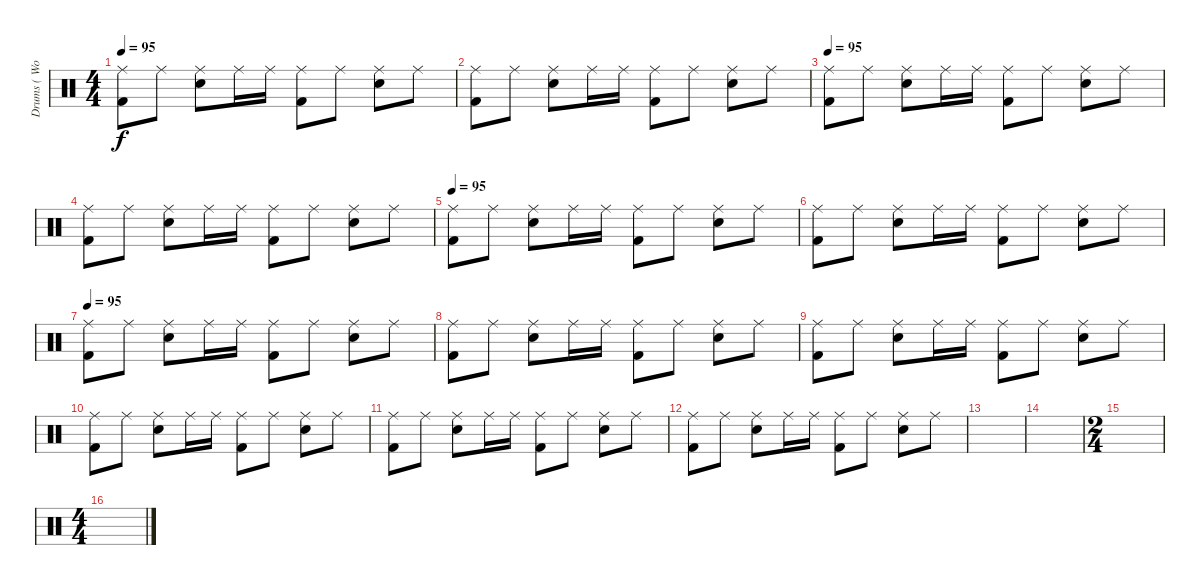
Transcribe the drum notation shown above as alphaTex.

\track ("Drums ( Wolf Simons)" "Drums ( Wo") {instrument percussion}
\staff {score}
\articulation defaults
\ts (4 4)
\tempo 95
\clef neutral
\ks c
("Ride (middle)" "Kick (hit) 2").8{dy f} "Ride (middle)".8 ("Ride (middle)" "Electric Snare (hit)").8 "Ride (middle)".16 "Ride (middle)".16 ("Ride (middle)" "Kick (hit) 2").8 "Ride (middle)".8 ("Ride (middle)" "Electric Snare (hit)").8 "Ride (middle)".8 |
("Ride (middle)" "Kick (hit) 2").8 "Ride (middle)".8 ("Ride (middle)" "Electric Snare (hit)").8 "Ride (middle)".16 "Ride (middle)".16 ("Ride (middle)" "Kick (hit) 2").8 "Ride (middle)".8 ("Ride (middle)" "Electric Snare (hit)").8 "Ride (middle)".8 |
\tempo 95
("Ride (middle)" "Kick (hit) 2").8 "Ride (middle)".8 ("Ride (middle)" "Electric Snare (hit)").8 "Ride (middle)".16 "Ride (middle)".16 ("Ride (middle)" "Kick (hit) 2").8 "Ride (middle)".8 ("Ride (middle)" "Electric Snare (hit)").8 "Ride (middle)".8 |
("Ride (middle)" "Kick (hit) 2").8 "Ride (middle)".8 ("Ride (middle)" "Electric Snare (hit)").8 "Ride (middle)".16 "Ride (middle)".16 ("Ride (middle)" "Kick (hit) 2").8 "Ride (middle)".8 ("Ride (middle)" "Electric Snare (hit)").8 "Ride (middle)".8 |
\tempo 95
("Ride (middle)" "Kick (hit) 2").8 "Ride (middle)".8 ("Ride (middle)" "Electric Snare (hit)").8 "Ride (middle)".16 "Ride (middle)".16 ("Ride (middle)" "Kick (hit) 2").8 "Ride (middle)".8 ("Ride (middle)" "Electric Snare (hit)").8 "Ride (middle)".8 |
("Ride (middle)" "Kick (hit) 2").8 "Ride (middle)".8 ("Ride (middle)" "Electric Snare (hit)").8 "Ride (middle)".16 "Ride (middle)".16 ("Ride (middle)" "Kick (hit) 2").8 "Ride (middle)".8 ("Ride (middle)" "Electric Snare (hit)").8 "Ride (middle)".8 |
\tempo 95
("Ride (middle)" "Kick (hit) 2").8 "Ride (middle)".8 ("Ride (middle)" "Electric Snare (hit)").8 "Ride (middle)".16 "Ride (middle)".16 ("Ride (middle)" "Kick (hit) 2").8 "Ride (middle)".8 ("Ride (middle)" "Electric Snare (hit)").8 "Ride (middle)".8 |
("Ride (middle)" "Kick (hit) 2").8 "Ride (middle)".8 ("Ride (middle)" "Electric Snare (hit)").8 "Ride (middle)".16 "Ride (middle)".16 ("Ride (middle)" "Kick (hit) 2").8 "Ride (middle)".8 ("Ride (middle)" "Electric Snare (hit)").8 "Ride (middle)".8 |
("Ride (middle)" "Kick (hit) 2").8 "Ride (middle)".8 ("Ride (middle)" "Electric Snare (hit)").8 "Ride (middle)".16 "Ride (middle)".16 ("Ride (middle)" "Kick (hit) 2").8 "Ride (middle)".8 ("Ride (middle)" "Electric Snare (hit)").8 "Ride (middle)".8 |
("Ride (middle)" "Kick (hit) 2").8 "Ride (middle)".8 ("Ride (middle)" "Electric Snare (hit)").8 "Ride (middle)".16 "Ride (middle)".16 ("Ride (middle)" "Kick (hit) 2").8 "Ride (middle)".8 ("Ride (middle)" "Electric Snare (hit)").8 "Ride (middle)".8 |
("Ride (middle)" "Kick (hit) 2").8 "Ride (middle)".8 ("Ride (middle)" "Electric Snare (hit)").8 "Ride (middle)".16 "Ride (middle)".16 ("Ride (middle)" "Kick (hit) 2").8 "Ride (middle)".8 ("Ride (middle)" "Electric Snare (hit)").8 "Ride (middle)".8 |
("Ride (middle)" "Kick (hit) 2").8 "Ride (middle)".8 ("Ride (middle)" "Electric Snare (hit)").8 "Ride (middle)".16 "Ride (middle)".16 ("Ride (middle)" "Kick (hit) 2").8 "Ride (middle)".8 ("Ride (middle)" "Electric Snare (hit)").8 "Ride (middle)".8 |
|
|
\ts (2 4)
|
\ts (4 4)
